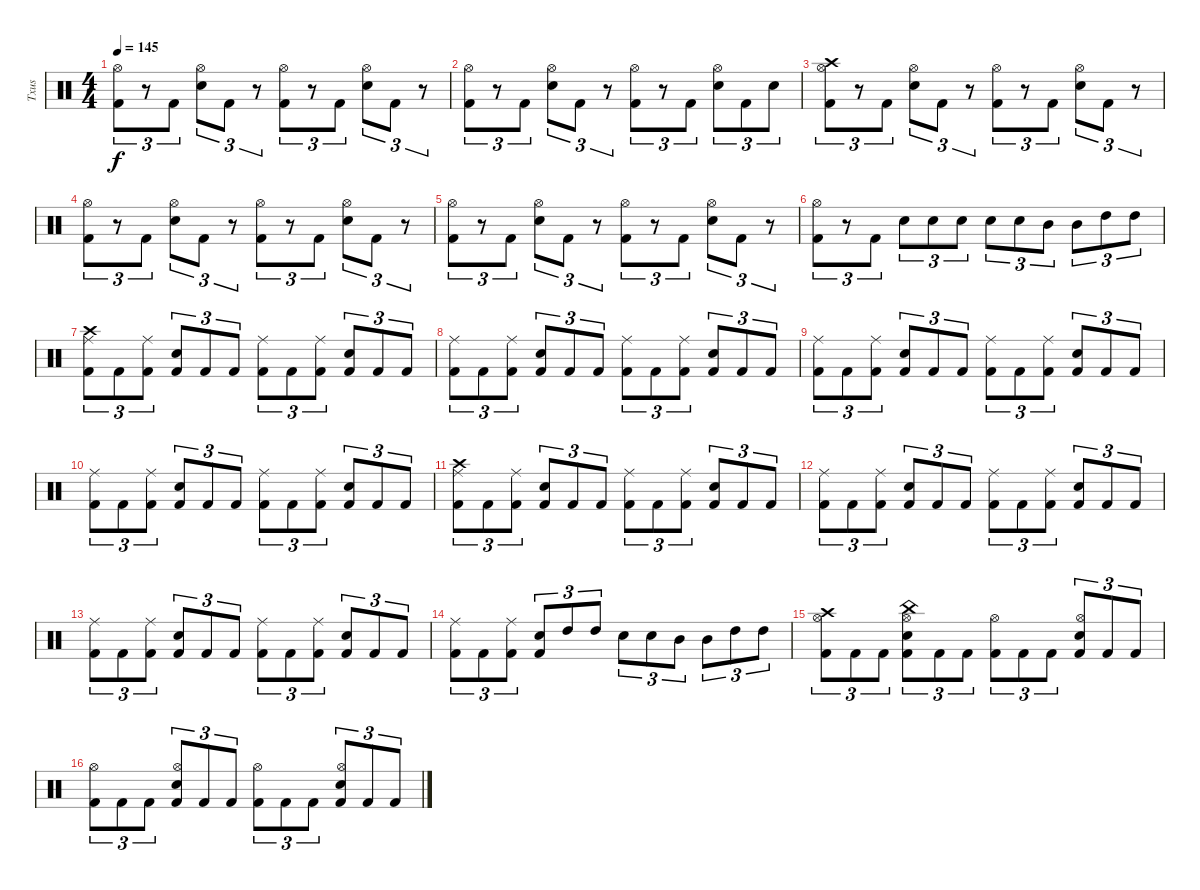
\track ("Txus" "Txus") {instrument percussion}
\staff {score}
\articulation defaults
\ts (4 4)
\tempo 145
\clef neutral
\ks c
("Kick (hit) 2" "Hi-Hat (open)").8{tu (3 2) dy f} r.8{tu (3 2)} "Kick (hit) 2".8{tu (3 2)} ("Hi-Hat (open)" "Electric Snare (hit)").8{tu (3 2)} "Kick (hit) 2".8{tu (3 2)} r.8{tu (3 2)} ("Kick (hit) 2" "Hi-Hat (open)").8{tu (3 2)} r.8{tu (3 2)} "Kick (hit) 2".8{tu (3 2)} ("Hi-Hat (open)" "Electric Snare (hit)").8{tu (3 2)} "Kick (hit) 2".8{tu (3 2)} r.8{tu (3 2)} |
("Kick (hit) 2" "Hi-Hat (open)").8{tu (3 2)} r.8{tu (3 2)} "Kick (hit) 2".8{tu (3 2)} ("Hi-Hat (open)" "Electric Snare (hit)").8{tu (3 2)} "Kick (hit) 2".8{tu (3 2)} r.8{tu (3 2)} ("Kick (hit) 2" "Hi-Hat (open)").8{tu (3 2)} r.8{tu (3 2)} "Kick (hit) 2".8{tu (3 2)} ("Hi-Hat (open)" "Electric Snare (hit)").8{tu (3 2)} "Kick (hit) 2".8{tu (3 2)} "Electric Snare (hit)".8{tu (3 2)} |
("Kick (hit) 2" "Hi-Hat (open)" "Crash high (hit)").8{tu (3 2)} r.8{tu (3 2)} "Kick (hit) 2".8{tu (3 2)} ("Hi-Hat (open)" "Electric Snare (hit)").8{tu (3 2)} "Kick (hit) 2".8{tu (3 2)} r.8{tu (3 2)} ("Kick (hit) 2" "Hi-Hat (open)").8{tu (3 2)} r.8{tu (3 2)} "Kick (hit) 2".8{tu (3 2)} ("Hi-Hat (open)" "Electric Snare (hit)").8{tu (3 2)} "Kick (hit) 2".8{tu (3 2)} r.8{tu (3 2)} |
("Kick (hit) 2" "Hi-Hat (open)").8{tu (3 2)} r.8{tu (3 2)} "Kick (hit) 2".8{tu (3 2)} ("Hi-Hat (open)" "Electric Snare (hit)").8{tu (3 2)} "Kick (hit) 2".8{tu (3 2)} r.8{tu (3 2)} ("Kick (hit) 2" "Hi-Hat (open)").8{tu (3 2)} r.8{tu (3 2)} "Kick (hit) 2".8{tu (3 2)} ("Hi-Hat (open)" "Electric Snare (hit)").8{tu (3 2)} "Kick (hit) 2".8{tu (3 2)} r.8{tu (3 2)} |
("Kick (hit) 2" "Hi-Hat (open)").8{tu (3 2)} r.8{tu (3 2)} "Kick (hit) 2".8{tu (3 2)} ("Hi-Hat (open)" "Electric Snare (hit)").8{tu (3 2)} "Kick (hit) 2".8{tu (3 2)} r.8{tu (3 2)} ("Kick (hit) 2" "Hi-Hat (open)").8{tu (3 2)} r.8{tu (3 2)} "Kick (hit) 2".8{tu (3 2)} ("Hi-Hat (open)" "Electric Snare (hit)").8{tu (3 2)} "Kick (hit) 2".8{tu (3 2)} r.8{tu (3 2)} |
("Kick (hit) 2" "Hi-Hat (open)").8{tu (3 2)} r.8{tu (3 2)} "Kick (hit) 2".8{tu (3 2)} "Electric Snare (hit)".8{tu (3 2)} "Electric Snare (hit)".8{tu (3 2)} "Electric Snare (hit)".8{tu (3 2)} "Electric Snare (hit)".8{tu (3 2)} "Electric Snare (hit)".8{tu (3 2)} "Mid Tom (hit)".8{tu (3 2)} "Mid Tom (hit)".8{tu (3 2)} "High Tom (hit)".8{tu (3 2)} "High Tom (hit)".8{tu (3 2)} |
("Kick (hit) 2" "Ride (middle)" "Crash high (hit)").8{tu (3 2)} "Kick (hit) 2".8{tu (3 2)} ("Kick (hit) 2" "Ride (middle)").8{tu (3 2)} ("Kick (hit) 2" "Electric Snare (hit)").8{tu (3 2)} "Kick (hit) 2".8{tu (3 2)} "Kick (hit) 2".8{tu (3 2)} ("Kick (hit) 2" "Ride (middle)").8{tu (3 2)} "Kick (hit) 2".8{tu (3 2)} ("Kick (hit) 2" "Ride (middle)").8{tu (3 2)} ("Kick (hit) 2" "Electric Snare (hit)").8{tu (3 2)} "Kick (hit) 2".8{tu (3 2)} "Kick (hit) 2".8{tu (3 2)} |
("Kick (hit) 2" "Ride (middle)").8{tu (3 2)} "Kick (hit) 2".8{tu (3 2)} ("Kick (hit) 2" "Ride (middle)").8{tu (3 2)} ("Kick (hit) 2" "Electric Snare (hit)").8{tu (3 2)} "Kick (hit) 2".8{tu (3 2)} "Kick (hit) 2".8{tu (3 2)} ("Kick (hit) 2" "Ride (middle)").8{tu (3 2)} "Kick (hit) 2".8{tu (3 2)} ("Kick (hit) 2" "Ride (middle)").8{tu (3 2)} ("Kick (hit) 2" "Electric Snare (hit)").8{tu (3 2)} "Kick (hit) 2".8{tu (3 2)} "Kick (hit) 2".8{tu (3 2)} |
("Kick (hit) 2" "Ride (middle)").8{tu (3 2)} "Kick (hit) 2".8{tu (3 2)} ("Kick (hit) 2" "Ride (middle)").8{tu (3 2)} ("Kick (hit) 2" "Electric Snare (hit)").8{tu (3 2)} "Kick (hit) 2".8{tu (3 2)} "Kick (hit) 2".8{tu (3 2)} ("Kick (hit) 2" "Ride (middle)").8{tu (3 2)} "Kick (hit) 2".8{tu (3 2)} ("Kick (hit) 2" "Ride (middle)").8{tu (3 2)} ("Kick (hit) 2" "Electric Snare (hit)").8{tu (3 2)} "Kick (hit) 2".8{tu (3 2)} "Kick (hit) 2".8{tu (3 2)} |
("Kick (hit) 2" "Ride (middle)").8{tu (3 2)} "Kick (hit) 2".8{tu (3 2)} ("Kick (hit) 2" "Ride (middle)").8{tu (3 2)} ("Kick (hit) 2" "Electric Snare (hit)").8{tu (3 2)} "Kick (hit) 2".8{tu (3 2)} "Kick (hit) 2".8{tu (3 2)} ("Kick (hit) 2" "Ride (middle)").8{tu (3 2)} "Kick (hit) 2".8{tu (3 2)} ("Kick (hit) 2" "Ride (middle)").8{tu (3 2)} ("Kick (hit) 2" "Electric Snare (hit)").8{tu (3 2)} "Kick (hit) 2".8{tu (3 2)} "Kick (hit) 2".8{tu (3 2)} |
("Kick (hit) 2" "Ride (middle)" "Crash high (hit)").8{tu (3 2)} "Kick (hit) 2".8{tu (3 2)} ("Kick (hit) 2" "Ride (middle)").8{tu (3 2)} ("Kick (hit) 2" "Electric Snare (hit)").8{tu (3 2)} "Kick (hit) 2".8{tu (3 2)} "Kick (hit) 2".8{tu (3 2)} ("Kick (hit) 2" "Ride (middle)").8{tu (3 2)} "Kick (hit) 2".8{tu (3 2)} ("Kick (hit) 2" "Ride (middle)").8{tu (3 2)} ("Kick (hit) 2" "Electric Snare (hit)").8{tu (3 2)} "Kick (hit) 2".8{tu (3 2)} "Kick (hit) 2".8{tu (3 2)} |
("Kick (hit) 2" "Ride (middle)").8{tu (3 2)} "Kick (hit) 2".8{tu (3 2)} ("Kick (hit) 2" "Ride (middle)").8{tu (3 2)} ("Kick (hit) 2" "Electric Snare (hit)").8{tu (3 2)} "Kick (hit) 2".8{tu (3 2)} "Kick (hit) 2".8{tu (3 2)} ("Kick (hit) 2" "Ride (middle)").8{tu (3 2)} "Kick (hit) 2".8{tu (3 2)} ("Kick (hit) 2" "Ride (middle)").8{tu (3 2)} ("Kick (hit) 2" "Electric Snare (hit)").8{tu (3 2)} "Kick (hit) 2".8{tu (3 2)} "Kick (hit) 2".8{tu (3 2)} |
("Kick (hit) 2" "Ride (middle)").8{tu (3 2)} "Kick (hit) 2".8{tu (3 2)} ("Kick (hit) 2" "Ride (middle)").8{tu (3 2)} ("Kick (hit) 2" "Electric Snare (hit)").8{tu (3 2)} "Kick (hit) 2".8{tu (3 2)} "Kick (hit) 2".8{tu (3 2)} ("Kick (hit) 2" "Ride (middle)").8{tu (3 2)} "Kick (hit) 2".8{tu (3 2)} ("Kick (hit) 2" "Ride (middle)").8{tu (3 2)} ("Kick (hit) 2" "Electric Snare (hit)").8{tu (3 2)} "Kick (hit) 2".8{tu (3 2)} "Kick (hit) 2".8{tu (3 2)} |
("Kick (hit) 2" "Ride (middle)").8{tu (3 2)} "Kick (hit) 2".8{tu (3 2)} ("Kick (hit) 2" "Ride (middle)").8{tu (3 2)} ("Kick (hit) 2" "Electric Snare (hit)").8{tu (3 2)} "High Tom (hit)".8{tu (3 2)} "High Tom (hit)".8{tu (3 2)} "Electric Snare (hit)".8{tu (3 2)} "Electric Snare (hit)".8{tu (3 2)} "Mid Tom (hit)".8{tu (3 2)} "Mid Tom (hit)".8{tu (3 2)} "High Tom (hit)".8{tu (3 2)} "High Tom (hit)".8{tu (3 2)} |
("Kick (hit) 2" "Hi-Hat (open)" "Crash high (hit)").8{tu (3 2)} "Kick (hit) 2".8{tu (3 2)} "Kick (hit) 2".8{tu (3 2)} ("Kick (hit) 2" "Hi-Hat (open)" "Electric Snare (hit)" "China (hit)").8{tu (3 2)} "Kick (hit) 2".8{tu (3 2)} "Kick (hit) 2".8{tu (3 2)} ("Kick (hit) 2" "Hi-Hat (open)").8{tu (3 2)} "Kick (hit) 2".8{tu (3 2)} "Kick (hit) 2".8{tu (3 2)} ("Kick (hit) 2" "Hi-Hat (open)" "Electric Snare (hit)").8{tu (3 2)} "Kick (hit) 2".8{tu (3 2)} "Kick (hit) 2".8{tu (3 2)} |
("Kick (hit) 2" "Hi-Hat (open)").8{tu (3 2)} "Kick (hit) 2".8{tu (3 2)} "Kick (hit) 2".8{tu (3 2)} ("Kick (hit) 2" "Hi-Hat (open)" "Electric Snare (hit)").8{tu (3 2)} "Kick (hit) 2".8{tu (3 2)} "Kick (hit) 2".8{tu (3 2)} ("Kick (hit) 2" "Hi-Hat (open)").8{tu (3 2)} "Kick (hit) 2".8{tu (3 2)} "Kick (hit) 2".8{tu (3 2)} ("Kick (hit) 2" "Hi-Hat (open)" "Electric Snare (hit)").8{tu (3 2)} "Kick (hit) 2".8{tu (3 2)} "Kick (hit) 2".8{tu (3 2)}
